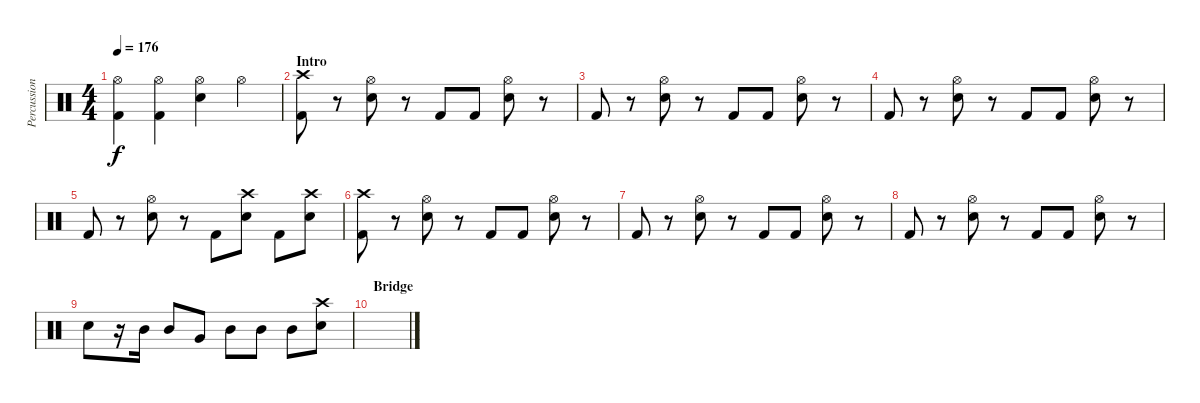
\track ("Percussion" "Percussion") {instrument percussion}
\staff {score}
\articulation defaults
\ts (4 4)
\tempo 176
\clef neutral
\ks c
("Hi-Hat (open)" "Kick (hit) 2").4{dy f} ("Hi-Hat (open)" "Kick (hit) 2").4 ("Hi-Hat (open)" "Snare (hit) 2").4 "Hi-Hat (open)".4 |
\section ("" "Intro")
("Crash high (hit)" "Kick (hit) 2").8 r.8 ("Hi-Hat (open)" "Snare (hit) 2").8 r.8 "Kick (hit) 2".8 "Kick (hit) 2".8 ("Hi-Hat (open)" "Snare (hit) 2").8 r.8 |
"Kick (hit) 2".8 r.8 ("Hi-Hat (open)" "Snare (hit) 2").8 r.8 "Kick (hit) 2".8 "Kick (hit) 2".8 ("Hi-Hat (open)" "Snare (hit) 2").8 r.8 |
"Kick (hit) 2".8 r.8 ("Hi-Hat (open)" "Snare (hit) 2").8 r.8 "Kick (hit) 2".8 "Kick (hit) 2".8 ("Hi-Hat (open)" "Snare (hit) 2").8 r.8 |
"Kick (hit) 2".8 r.8 ("Hi-Hat (open)" "Snare (hit) 2").8 r.8 "Kick (hit) 2".8 ("Crash high (hit)" "Snare (hit) 2").8 "Kick (hit) 2".8 ("Crash high (hit)" "Snare (hit) 2").8 |
("Crash high (hit)" "Kick (hit) 2").8 r.8 ("Hi-Hat (open)" "Snare (hit) 2").8 r.8 "Kick (hit) 2".8 "Kick (hit) 2".8 ("Hi-Hat (open)" "Snare (hit) 2").8 r.8 |
"Kick (hit) 2".8 r.8 ("Hi-Hat (open)" "Snare (hit) 2").8 r.8 "Kick (hit) 2".8 "Kick (hit) 2".8 ("Hi-Hat (open)" "Snare (hit) 2").8 r.8 |
"Kick (hit) 2".8 r.8 ("Hi-Hat (open)" "Snare (hit) 2").8 r.8 "Kick (hit) 2".8 "Kick (hit) 2".8 ("Hi-Hat (open)" "Snare (hit) 2").8 r.8 |
"Snare (hit) 2".8 r.16 "Mid Tom (hit)".16 "Mid Tom (hit)".8 "Very Low Tom (hit)".8 "Mid Tom (hit)".8 "Mid Tom (hit)".8 "Mid Tom (hit)".8 ("Crash high (hit)" "Snare (hit) 2").8 |
\section ("" "Bridge")
